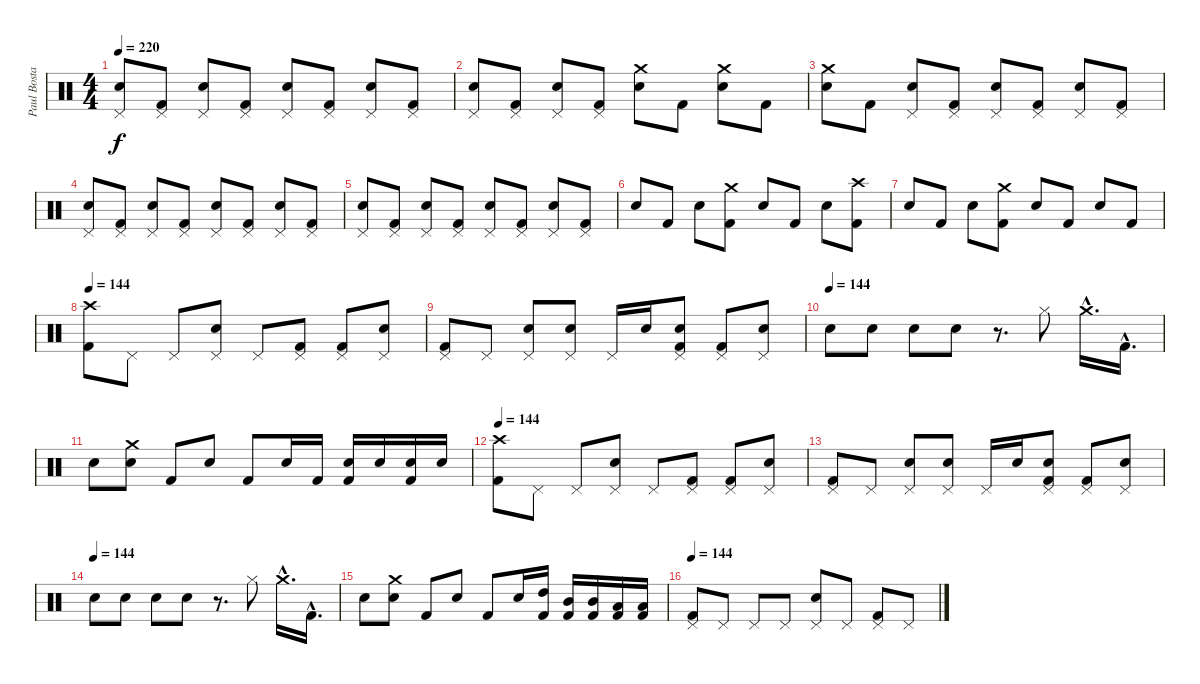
\track ("Paul Bostaph" "Paul Bosta") {instrument percussion}
\staff {score}
\articulation defaults
\ts (4 4)
\tempo 220
\clef neutral
\ks c
("Snare (hit) 2" "Pedal Hi-Hat (hit)").8{dy f} ("Kick (hit) 2" "Pedal Hi-Hat (hit)").8 ("Snare (hit) 2" "Pedal Hi-Hat (hit)").8 ("Kick (hit) 2" "Pedal Hi-Hat (hit)").8 ("Snare (hit) 2" "Pedal Hi-Hat (hit)").8 ("Kick (hit) 2" "Pedal Hi-Hat (hit)").8 ("Snare (hit) 2" "Pedal Hi-Hat (hit)").8 ("Kick (hit) 2" "Pedal Hi-Hat (hit)").8 |
("Snare (hit) 2" "Pedal Hi-Hat (hit)").8 ("Kick (hit) 2" "Pedal Hi-Hat (hit)").8 ("Snare (hit) 2" "Pedal Hi-Hat (hit)").8 ("Kick (hit) 2" "Pedal Hi-Hat (hit)").8 ("Snare (hit) 2" "Crash medium (hit)").8 "Kick (hit) 2".8 ("Snare (hit) 2" "Crash medium (hit)").8 "Kick (hit) 2".8 |
("Snare (hit) 2" "Crash medium (hit)").8 "Kick (hit) 2".8 ("Snare (hit) 2" "Pedal Hi-Hat (hit)").8 ("Kick (hit) 2" "Pedal Hi-Hat (hit)").8 ("Snare (hit) 2" "Pedal Hi-Hat (hit)").8 ("Kick (hit) 2" "Pedal Hi-Hat (hit)").8 ("Snare (hit) 2" "Pedal Hi-Hat (hit)").8 ("Kick (hit) 2" "Pedal Hi-Hat (hit)").8 |
("Snare (hit) 2" "Pedal Hi-Hat (hit)").8 ("Kick (hit) 2" "Pedal Hi-Hat (hit)").8 ("Snare (hit) 2" "Pedal Hi-Hat (hit)").8 ("Kick (hit) 2" "Pedal Hi-Hat (hit)").8 ("Snare (hit) 2" "Pedal Hi-Hat (hit)").8 ("Kick (hit) 2" "Pedal Hi-Hat (hit)").8 ("Snare (hit) 2" "Pedal Hi-Hat (hit)").8 ("Kick (hit) 2" "Pedal Hi-Hat (hit)").8 |
("Snare (hit) 2" "Pedal Hi-Hat (hit)").8 ("Kick (hit) 2" "Pedal Hi-Hat (hit)").8 ("Snare (hit) 2" "Pedal Hi-Hat (hit)").8 ("Kick (hit) 2" "Pedal Hi-Hat (hit)").8 ("Snare (hit) 2" "Pedal Hi-Hat (hit)").8 ("Kick (hit) 2" "Pedal Hi-Hat (hit)").8 ("Snare (hit) 2" "Pedal Hi-Hat (hit)").8 ("Kick (hit) 2" "Pedal Hi-Hat (hit)").8 |
"Snare (hit) 2".8 "Kick (hit) 2".8 "Snare (hit) 2".8 ("Kick (hit) 2" "Crash medium (hit)").8 "Snare (hit) 2".8 "Kick (hit) 2".8 "Snare (hit) 2".8 ("Kick (hit) 2" "Crash high (hit)").8 |
"Snare (hit) 2".8 "Kick (hit) 2".8 "Snare (hit) 2".8 ("Kick (hit) 2" "Crash medium (hit)").8 "Snare (hit) 2".8 "Kick (hit) 2".8 "Snare (hit) 2".8 "Kick (hit) 2".8 |
\tempo 144
("Kick (hit) 2" "Crash high (hit)").8 "Pedal Hi-Hat (hit)".8 "Pedal Hi-Hat (hit)".8 ("Snare (hit) 2" "Pedal Hi-Hat (hit)").8 "Pedal Hi-Hat (hit)".8 ("Kick (hit) 2" "Pedal Hi-Hat (hit)").8 ("Kick (hit) 2" "Pedal Hi-Hat (hit)").8 ("Snare (hit) 2" "Pedal Hi-Hat (hit)").8 |
("Kick (hit) 2" "Pedal Hi-Hat (hit)").8 "Pedal Hi-Hat (hit)".8 ("Snare (hit) 2" "Pedal Hi-Hat (hit)").8 ("Snare (hit) 2" "Pedal Hi-Hat (hit)").8 "Pedal Hi-Hat (hit)".16 "Snare (hit) 2".16 ("Snare (hit) 2" "Kick (hit) 2" "Pedal Hi-Hat (hit)").8 ("Kick (hit) 2" "Pedal Hi-Hat (hit)").8 ("Snare (hit) 2" "Pedal Hi-Hat (hit)").8 |
\tempo (144)
"Snare (hit) 2".8 "Snare (hit) 2".8 "Snare (hit) 2".8 "Snare (hit) 2".8 r.8{d} "Hi-Hat (closed)".8 "Crash medium (hit)"{hac}.16{d} "Kick (hit) 2"{hac}.16{d} |
"Snare (hit) 2".8 ("Snare (hit) 2" "Crash medium (hit)").8 "Kick (hit) 2".8 "Snare (hit) 2".8 "Kick (hit) 2".8 "Snare (hit) 2".16 "Kick (hit) 2".16 ("Snare (hit) 2" "Kick (hit) 2").16 "Snare (hit) 2".16 ("Snare (hit) 2" "Kick (hit) 2").16 "Snare (hit) 2".16 |
\tempo 144
("Kick (hit) 2" "Crash high (hit)").8 "Pedal Hi-Hat (hit)".8 "Pedal Hi-Hat (hit)".8 ("Snare (hit) 2" "Pedal Hi-Hat (hit)").8 "Pedal Hi-Hat (hit)".8 ("Kick (hit) 2" "Pedal Hi-Hat (hit)").8 ("Kick (hit) 2" "Pedal Hi-Hat (hit)").8 ("Snare (hit) 2" "Pedal Hi-Hat (hit)").8 |
("Kick (hit) 2" "Pedal Hi-Hat (hit)").8 "Pedal Hi-Hat (hit)".8 ("Snare (hit) 2" "Pedal Hi-Hat (hit)").8 ("Snare (hit) 2" "Pedal Hi-Hat (hit)").8 "Pedal Hi-Hat (hit)".16 "Snare (hit) 2".16 ("Snare (hit) 2" "Kick (hit) 2" "Pedal Hi-Hat (hit)").8 ("Kick (hit) 2" "Pedal Hi-Hat (hit)").8 ("Snare (hit) 2" "Pedal Hi-Hat (hit)").8 |
\tempo (144)
"Snare (hit) 2".8 "Snare (hit) 2".8 "Snare (hit) 2".8 "Snare (hit) 2".8 r.8{d} "Hi-Hat (closed)".8 "Crash medium (hit)"{hac}.16{d} "Kick (hit) 2"{hac}.16{d} |
"Snare (hit) 2".8 ("Snare (hit) 2" "Crash medium (hit)").8 "Kick (hit) 2".8 "Snare (hit) 2".8 "Kick (hit) 2".8 "Snare (hit) 2".16 ("Kick (hit) 2" "High Tom (hit)").16 ("Kick (hit) 2" "Mid Tom (hit)").16 ("Kick (hit) 2" "Mid Tom (hit)").16 ("Kick (hit) 2" "Low Tom (hit)").16 ("Kick (hit) 2" "Low Tom (hit)").16 |
\tempo 144
("Kick (hit) 2" "Pedal Hi-Hat (hit)").8 "Pedal Hi-Hat (hit)".8 "Pedal Hi-Hat (hit)".8 "Pedal Hi-Hat (hit)".8 ("Snare (hit) 2" "Pedal Hi-Hat (hit)").8 "Pedal Hi-Hat (hit)".8 ("Kick (hit) 2" "Pedal Hi-Hat (hit)").8 "Pedal Hi-Hat (hit)".8
